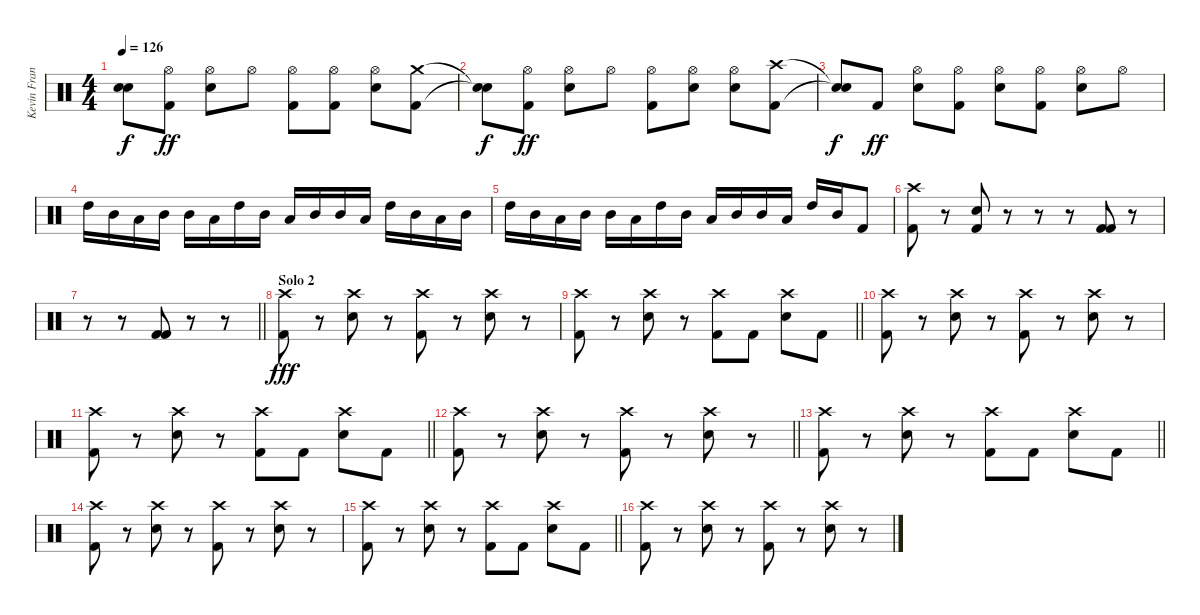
\track ("Kevin Frank" "Kevin Fran") {instrument percussion}
\staff
\articulation defaults
\ts (4 4)
\tempo 126
\clef neutral
\ks c
("Snare (hit)"{t} "Snare (hit)"{t}).8{dy f} ("Hi-Hat (open)" "Kick (hit) 2").8{dy ff} ("Hi-Hat (open)" "Snare (hit) 2").8 "Hi-Hat (open)".8 ("Hi-Hat (open)" "Kick (hit) 2").8 ("Hi-Hat (open)" "Kick (hit) 2").8 ("Hi-Hat (open)" "Snare (hit) 2").8 ("Crash medium (hit)" "Kick (hit) 2").8 |
("Snare (hit)"{t} "Snare (hit)"{t}).8{dy f} ("Hi-Hat (open)" "Kick (hit) 2").8{dy ff} ("Hi-Hat (open)" "Snare (hit) 2").8 "Hi-Hat (open)".8 ("Hi-Hat (open)" "Kick (hit) 2").8 ("Hi-Hat (open)" "Snare (hit) 2").8 ("Hi-Hat (open)" "Snare (hit) 2").8 ("Crash high (hit)" "Kick (hit) 2").8 |
("Snare (hit)"{t} "Snare (hit)"{t}).8{dy f} "Kick (hit) 2".8{dy ff} ("Hi-Hat (open)" "Snare (hit) 2").8 ("Hi-Hat (open)" "Kick (hit) 2").8 ("Hi-Hat (open)" "Snare (hit) 2").8 ("Hi-Hat (open)" "Kick (hit) 2").8 ("Hi-Hat (open)" "Snare (hit) 2").8 "Hi-Hat (open)".8 |
"High Tom (hit)".16 "Mid Tom (hit)".16 "Low Tom (hit)".16 "Mid Tom (hit)".16 "Mid Tom (hit)".16 "Low Tom (hit)".16 "High Tom (hit)".16 "Mid Tom (hit)".16 "Low Tom (hit)".16 "Mid Tom (hit)".16 "Mid Tom (hit)".16 "Low Tom (hit)".16 "High Tom (hit)".16 "Mid Tom (hit)".16 "Low Tom (hit)".16 "Mid Tom (hit)".16 |
"High Tom (hit)".16 "Mid Tom (hit)".16 "Low Tom (hit)".16 "Mid Tom (hit)".16 "Mid Tom (hit)".16 "Low Tom (hit)".16 "High Tom (hit)".16 "Mid Tom (hit)".16 "Low Tom (hit)".16 "Mid Tom (hit)".16 "Mid Tom (hit)".16 "Low Tom (hit)".16 "High Tom (hit)".16 "Mid Tom (hit)".16 "Kick (hit) 2".8 |
("Crash high (hit)" "Kick (hit) 2").8 r.8 ("Kick (hit) 2" "Snare (hit) 2").8 r.8 r.8 r.8 ("Kick (hit) 2" "Kick (hit) 2").8 r.8 |
\barLineRight lightlight
r.8 r.8 ("Kick (hit) 2" "Kick (hit) 2").8 r.8 r.8 |
\section ("" "Solo 2")
("Crash high (hit)" "Kick (hit) 2").8{dy fff} r.8 ("Crash high (hit)" "Snare (hit) 2").8 r.8 ("Crash high (hit)" "Kick (hit) 2").8 r.8 ("Crash high (hit)" "Snare (hit) 2").8 r.8 |
\barLineRight lightlight
("Crash high (hit)" "Kick (hit) 2").8 r.8 ("Crash high (hit)" "Snare (hit) 2").8 r.8 ("Crash high (hit)" "Kick (hit) 2").8 "Kick (hit) 2".8 ("Crash high (hit)" "Snare (hit) 2").8 "Kick (hit) 2".8 |
("Crash high (hit)" "Kick (hit) 2").8 r.8 ("Crash high (hit)" "Snare (hit) 2").8 r.8 ("Crash high (hit)" "Kick (hit) 2").8 r.8 ("Crash high (hit)" "Snare (hit) 2").8 r.8 |
\barLineRight lightlight
("Crash high (hit)" "Kick (hit) 2").8 r.8 ("Crash high (hit)" "Snare (hit) 2").8 r.8 ("Crash high (hit)" "Kick (hit) 2").8 "Kick (hit) 2".8 ("Crash high (hit)" "Snare (hit) 2").8 "Kick (hit) 2".8 |
\barLineRight lightlight
("Crash high (hit)" "Kick (hit) 2").8 r.8 ("Crash high (hit)" "Snare (hit) 2").8 r.8 ("Crash high (hit)" "Kick (hit) 2").8 r.8 ("Crash high (hit)" "Snare (hit) 2").8 r.8 |
\barLineRight lightlight
("Crash high (hit)" "Kick (hit) 2").8 r.8 ("Crash high (hit)" "Snare (hit) 2").8 r.8 ("Crash high (hit)" "Kick (hit) 2").8 "Kick (hit) 2".8 ("Crash high (hit)" "Snare (hit) 2").8 "Kick (hit) 2".8 |
("Crash high (hit)" "Kick (hit) 2").8 r.8 ("Crash high (hit)" "Snare (hit) 2").8 r.8 ("Crash high (hit)" "Kick (hit) 2").8 r.8 ("Crash high (hit)" "Snare (hit) 2").8 r.8 |
\barLineRight lightlight
("Crash high (hit)" "Kick (hit) 2").8 r.8 ("Crash high (hit)" "Snare (hit) 2").8 r.8 ("Crash high (hit)" "Kick (hit) 2").8 "Kick (hit) 2".8 ("Crash high (hit)" "Snare (hit) 2").8 "Kick (hit) 2".8 |
("Crash high (hit)" "Kick (hit) 2").8 r.8 ("Crash high (hit)" "Snare (hit) 2").8 r.8 ("Crash high (hit)" "Kick (hit) 2").8 r.8 ("Crash high (hit)" "Snare (hit) 2").8 r.8
